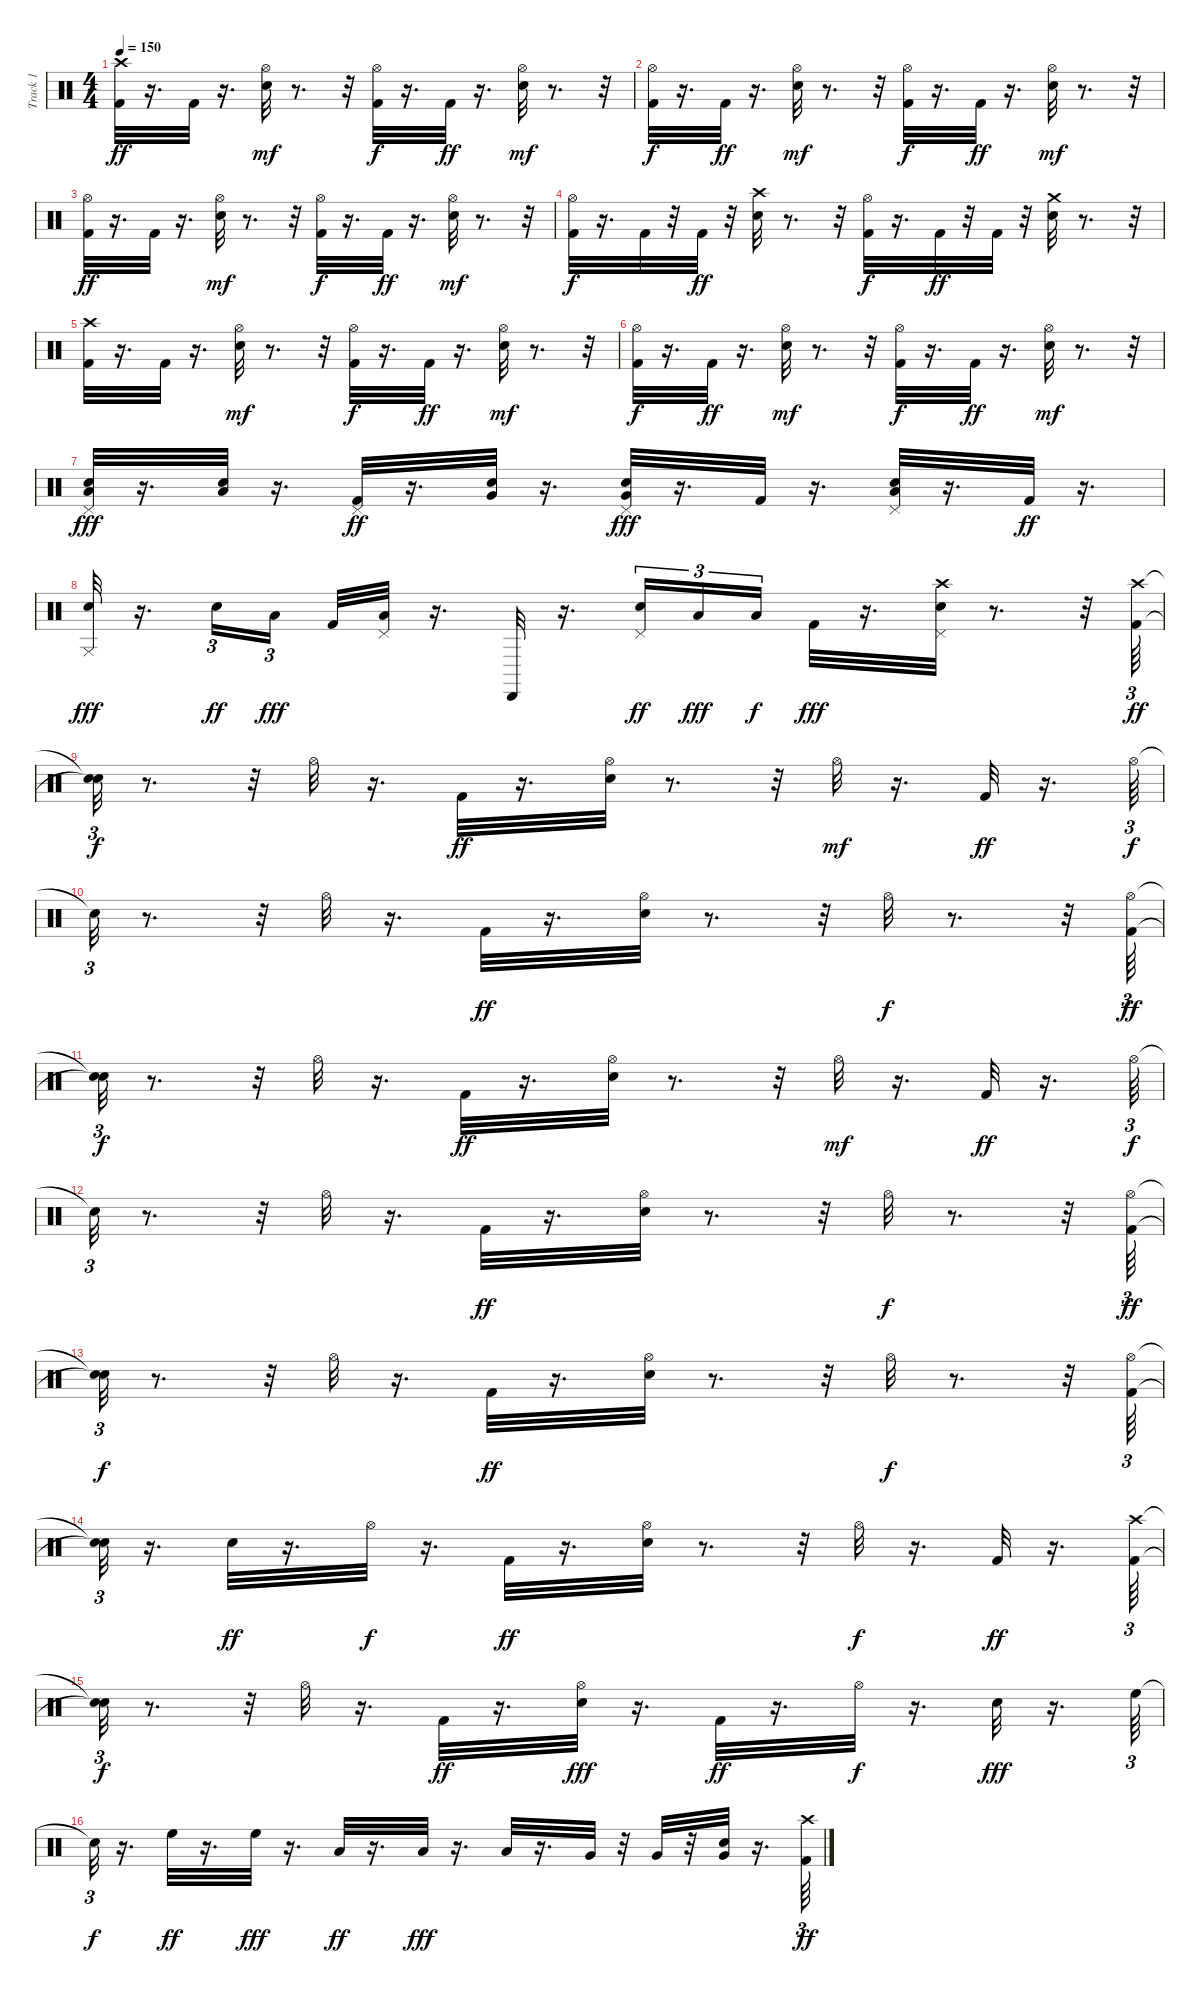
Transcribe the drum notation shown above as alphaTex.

\track ("Track 1" "Track 1") {instrument percussion}
\staff {score}
\articulation defaults
\ts (4 4)
\tempo 150
\clef neutral
\ks c
("Crash high (hit)" "Kick (hit) 2").32{dy ff} r.16{d} "Kick (hit) 2".32 r.16{d} ("Electric Snare (hit)" "Hi-Hat (open)").32{dy mf} r.8{d} r.32 ("Hi-Hat (open)" "Kick (hit) 2").32{dy f} r.16{d} "Kick (hit) 2".32{dy ff} r.16{d} ("Electric Snare (hit)" "Hi-Hat (open)").32{dy mf} r.8{d} r.32 |
("Hi-Hat (open)" "Kick (hit) 2").32{dy f} r.16{d} "Kick (hit) 2".32{dy ff} r.16{d} ("Electric Snare (hit)" "Hi-Hat (open)").32{dy mf} r.8{d} r.32 ("Kick (hit) 2" "Hi-Hat (open)").32{dy f} r.16{d} "Kick (hit) 2".32{dy ff} r.16{d} ("Electric Snare (hit)" "Hi-Hat (open)").32{dy mf} r.8{d} r.32 |
("Hi-Hat (open)" "Kick (hit) 2").32{dy ff} r.16{d} "Kick (hit) 2".32 r.16{d} ("Electric Snare (hit)" "Hi-Hat (open)").32{dy mf} r.8{d} r.32 ("Hi-Hat (open)" "Kick (hit) 2").32{dy f} r.16{d} "Kick (hit) 2".32{dy ff} r.16{d} ("Electric Snare (hit)" "Hi-Hat (open)").32{dy mf} r.8{d} r.32 |
("Hi-Hat (open)" "Kick (hit) 2").32{dy f} r.16{d} "Kick (hit) 2".32 r.32 "Kick (hit) 2".32{dy ff} r.32 ("Electric Snare (hit)" "Crash high (hit)").32 r.8{d} r.32 ("Kick (hit) 2" "Hi-Hat (open)").32{dy f} r.16{d} "Kick (hit) 2".32{dy ff} r.32 "Kick (hit) 2".32 r.32 ("Electric Snare (hit)" "Crash medium (hit)").32 r.8{d} r.32 |
("Kick (hit) 2" "Crash high (hit)").32 r.16{d} "Kick (hit) 2".32 r.16{d} ("Electric Snare (hit)" "Hi-Hat (open)").32{dy mf} r.8{d} r.32 ("Hi-Hat (open)" "Kick (hit) 2").32{dy f} r.16{d} "Kick (hit) 2".32{dy ff} r.16{d} ("Electric Snare (hit)" "Hi-Hat (open)").32{dy mf} r.8{d} r.32 |
("Hi-Hat (open)" "Kick (hit) 2").32{dy f} r.16{d} "Kick (hit) 2".32{dy ff} r.16{d} ("Electric Snare (hit)" "Hi-Hat (open)").32{dy mf} r.8{d} r.32 ("Kick (hit) 2" "Hi-Hat (open)").32{dy f} r.16{d} "Kick (hit) 2".32{dy ff} r.16{d} ("Electric Snare (hit)" "Hi-Hat (open)").32{dy mf} r.8{d} r.32 |
("Snare (hit) 2" "Low Tom (hit)" "Pedal Hi-Hat (hit)").32{dy fff} r.16{d} ("Snare (hit) 2" "Low Tom (hit)").32 r.16{d} ("Pedal Hi-Hat (hit)" "Kick (hit) 2").32{dy ff} r.16{d} ("Very Low Tom (hit)" "Snare (hit) 2").32 r.16{d} ("Pedal Hi-Hat (hit)" "Snare (hit) 2" "Very Low Tom (hit)").32{dy fff} r.16{d} "Kick (hit) 2".32 r.16{d} ("Pedal Hi-Hat (hit)" "Snare (hit) 2" "Low Floor Tom (hit)").32 r.16{d} "Kick (hit) 2".32{dy ff} r.16{d} |
("Snare (hit) 2" "Conga high (slap)").32{dy fff} r.16{d} "Snare (hit) 2".16{tu (3 2) dy ff} "Low Tom (hit)".16{tu (3 2) dy fff beam splitsecondary} "Kick (hit) 2".32 ("Pedal Hi-Hat (hit)" "Low Floor Tom (hit)").32 r.16{d} "Cabasa (hit)".32 r.16{d} ("Pedal Hi-Hat (hit)" "Snare (hit) 2").16{tu (3 2) dy ff} "Low Tom (hit)".16{tu (3 2) dy fff} "Low Floor Tom (hit)".16{tu (3 2) dy f beam splitsecondary} "Kick (hit) 2".32{dy fff} r.16{d} ("Pedal Hi-Hat (hit)" "Snare (hit) 2" "Crash high (hit)").32 r.8{d} r.32 ("Crash high (hit)" "Kick (hit) 2").64{tu (3 2) dy ff} |
("Snare (hit)"{t} "Snare (hit)"{t}).32{tu (3 2) dy f} r.8{d} r.32 "Hi-Hat (open)".32 r.16{d} "Kick (hit) 2".32{dy ff} r.16{d} ("Hi-Hat (open)" "Snare (hit) 2").32 r.8{d} r.32 "Hi-Hat (open)".32{dy mf} r.16{d} "Kick (hit) 2".32{dy ff} r.16{d} "Hi-Hat (open)".64{tu (3 2) dy f} |
"Snare (hit)"{t}.32{tu (3 2)} r.8{d} r.32 "Hi-Hat (open)".32 r.16{d} "Kick (hit) 2".32{dy ff} r.16{d} ("Hi-Hat (open)" "Snare (hit) 2").32 r.8{d} r.32 "Hi-Hat (open)".32{dy f} r.8{d} r.32 ("Hi-Hat (open)" "Kick (hit) 2").64{tu (3 2) dy ff} |
("Snare (hit)"{t} "Snare (hit)"{t}).32{tu (3 2) dy f} r.8{d} r.32 "Hi-Hat (open)".32 r.16{d} "Kick (hit) 2".32{dy ff} r.16{d} ("Hi-Hat (open)" "Snare (hit) 2").32 r.8{d} r.32 "Hi-Hat (open)".32{dy mf} r.16{d} "Kick (hit) 2".32{dy ff} r.16{d} "Hi-Hat (open)".64{tu (3 2) dy f} |
"Snare (hit)"{t}.32{tu (3 2)} r.8{d} r.32 "Hi-Hat (open)".32 r.16{d} "Kick (hit) 2".32{dy ff} r.16{d} ("Hi-Hat (open)" "Snare (hit) 2").32 r.8{d} r.32 "Hi-Hat (open)".32{dy f} r.8{d} r.32 ("Hi-Hat (open)" "Kick (hit) 2").64{tu (3 2) dy ff} |
("Snare (hit)"{t} "Snare (hit)"{t}).32{tu (3 2) dy f} r.8{d} r.32 "Hi-Hat (open)".32 r.16{d} "Kick (hit) 2".32{dy ff} r.16{d} ("Hi-Hat (open)" "Snare (hit) 2").32 r.8{d} r.32 "Hi-Hat (open)".32{dy f} r.8{d} r.32 ("Hi-Hat (open)" "Kick (hit) 2").64{tu (3 2)} |
("Snare (hit)"{t} "Snare (hit)"{t}).32{tu (3 2)} r.16{d} "Snare (hit) 2".32{dy ff} r.16{d} "Hi-Hat (open)".32{dy f} r.16{d} "Kick (hit) 2".32{dy ff} r.16{d} ("Snare (hit) 2" "Hi-Hat (open)").32 r.8{d} r.32 "Hi-Hat (open)".32{dy f} r.16{d} "Kick (hit) 2".32{dy ff} r.16{d} ("Crash high (hit)" "Kick (hit) 2").64{tu (3 2)} |
("Snare (hit)"{t} "Snare (hit)"{t}).32{tu (3 2) dy f} r.8{d} r.32 "Hi-Hat (open)".32 r.16{d} "Kick (hit) 2".32{dy ff} r.16{d} ("Hi-Hat (open)" "Snare (hit) 2").32{dy fff} r.16{d} "Kick (hit) 2".32{dy ff} r.16{d} "Hi-Hat (open)".32{dy f} r.16{d} "Electric Snare (hit)".32{dy fff} r.16{d} "High Floor Tom (hit)".64{tu (3 2)} |
"Snare (hit)"{t}.32{tu (3 2) dy f} r.16{d} "High Floor Tom (hit)".32{dy ff} r.16{d} "High Floor Tom (hit)".32{dy fff} r.16{d} "Low Tom (hit)".32{dy ff} r.16{d} "Low Tom (hit)".32{dy fff} r.16{d} "Low Tom (hit)".32 r.16{d} "Very Low Tom (hit)".32 r.32 "Very Low Tom (hit)".32 r.32 ("Snare (hit) 2" "Very Low Tom (hit)").32 r.16{d} ("Crash high (hit)" "Kick (hit) 2").64{tu (3 2) dy ff}
